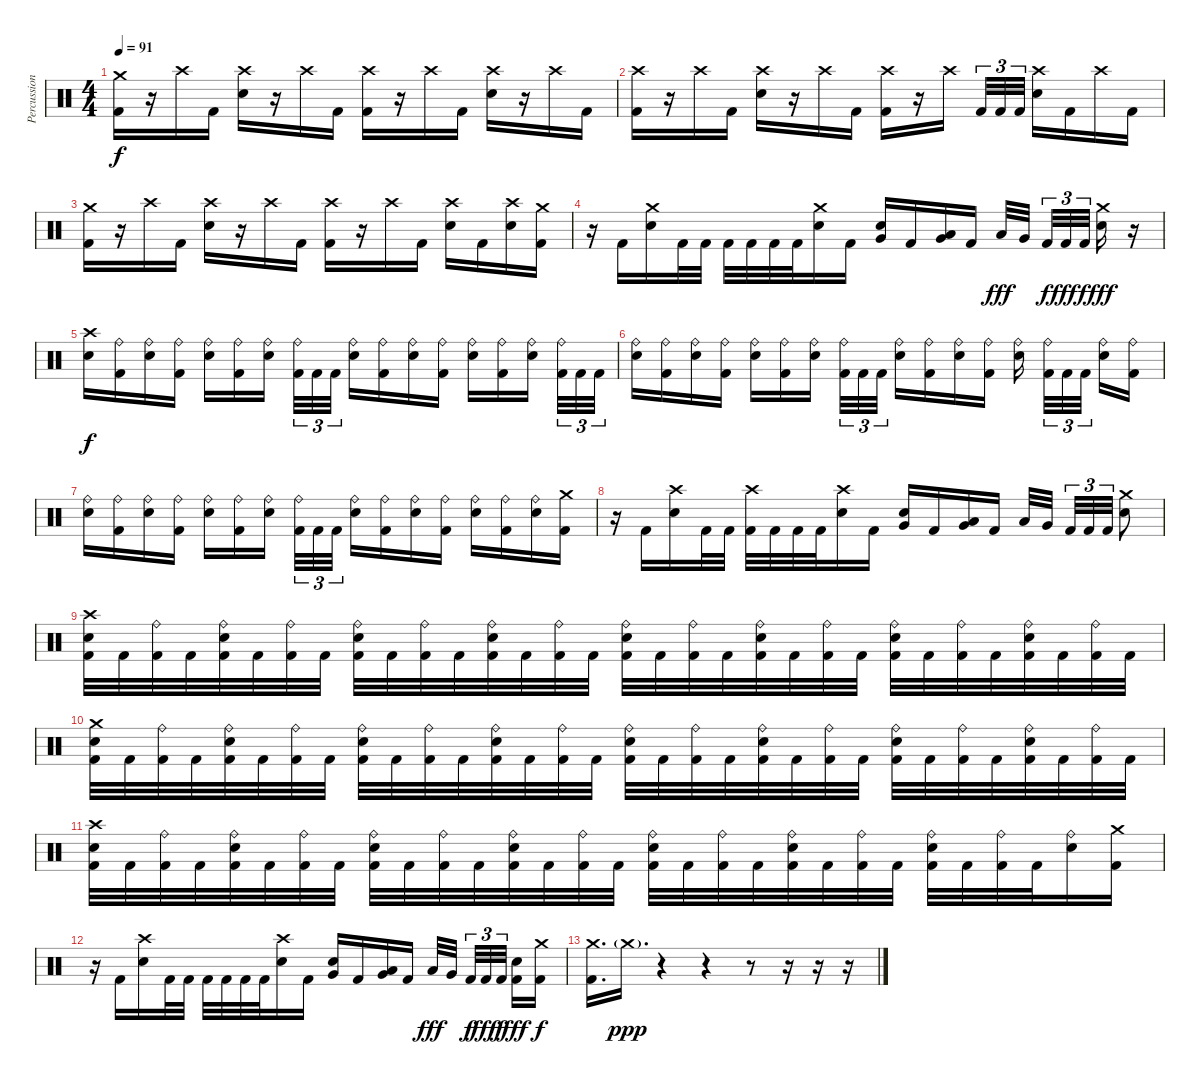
\track ("Percussion" "Percussion") {instrument percussion}
\staff {score}
\articulation defaults
\ts (4 4)
\tempo 91
\clef neutral
\ks c
("Crash medium (hit)" "Kick (hit) 2").16{dy f} r.16 "Crash high (hit)".16 "Kick (hit) 2".16 ("Crash high (hit)" "Electric Snare (hit)").16 r.16 "Crash high (hit)".16 "Kick (hit) 2".16 ("Crash high (hit)" "Kick (hit) 2").16 r.16 "Crash high (hit)".16 "Kick (hit) 2".16 ("Crash high (hit)" "Electric Snare (hit)").16 r.16 "Crash high (hit)".16 "Kick (hit) 2".16 |
("Crash high (hit)" "Kick (hit) 2").16 r.16 "Crash high (hit)".16 "Kick (hit) 2".16 ("Crash high (hit)" "Electric Snare (hit)").16 r.16 "Crash high (hit)".16 "Kick (hit) 2".16 ("Crash high (hit)" "Kick (hit) 2").16 r.16 "Crash high (hit)".16{beam splitsecondary} "Kick (hit) 2".32{tu (3 2)} "Kick (hit) 2".32{tu (3 2)} "Kick (hit) 2".32{tu (3 2)} ("Crash high (hit)" "Electric Snare (hit)").16 "Kick (hit) 2".16 "Crash high (hit)".16 "Kick (hit) 2".16 |
("Crash medium (hit)" "Kick (hit) 2").16 r.16 "Crash high (hit)".16 "Kick (hit) 2".16 ("Crash high (hit)" "Electric Snare (hit)").16 r.16 "Crash high (hit)".16 "Kick (hit) 2".16 ("Crash high (hit)" "Kick (hit) 2").16 r.16 "Crash high (hit)".16 "Kick (hit) 2".16 ("Crash high (hit)" "Electric Snare (hit)").16 "Kick (hit) 2".16 ("Crash high (hit)" "Electric Snare (hit)").16 ("Crash medium (hit)" "Kick (hit) 2").16 |
r.16 "Kick (hit) 2".16 ("Crash medium (hit)" "Electric Snare (hit)").16 "Kick (hit) 2".32 "Kick (hit) 2".32 "Kick (hit) 2".32 "Kick (hit) 2".32 "Kick (hit) 2".32 "Kick (hit) 2".32 ("Crash medium (hit)" "Electric Snare (hit)").16 "Kick (hit) 2".16 ("Electric Snare (hit)" "Very Low Tom (hit)").16 "Kick (hit) 2".16 ("Very Low Tom (hit)" "Low Floor Tom (hit)").16 "Kick (hit) 2".16 "Low Tom (hit)".32{dy fff} "Very Low Tom (hit)".32{beam splitsecondary} "Kick (hit) 2".32{tu (3 2) dy f} "Kick (hit) 2".32{tu (3 2) dy fff} "Kick (hit) 2".32{tu (3 2) dy f beam splitsecondary} ("Crash medium (hit)" "Electric Snare (hit)").16{dy fff} r.16 |
("Crash high (hit)" "Electric Snare (hit)").16{dy f} ("Ride (bell)" "Kick (hit) 2").16 ("Ride (bell)" "Electric Snare (hit)").16 ("Ride (bell)" "Kick (hit) 2").16 ("Ride (bell)" "Electric Snare (hit)").16 ("Ride (bell)" "Kick (hit) 2").16 ("Ride (bell)" "Electric Snare (hit)").16{beam splitsecondary} ("Ride (bell)" "Kick (hit) 2").32{tu (3 2)} "Kick (hit) 2".32{tu (3 2)} "Kick (hit) 2".32{tu (3 2)} ("Ride (bell)" "Electric Snare (hit)").16 ("Ride (bell)" "Kick (hit) 2").16 ("Ride (bell)" "Electric Snare (hit)").16 ("Ride (bell)" "Kick (hit) 2").16 ("Ride (bell)" "Electric Snare (hit)").16 ("Ride (bell)" "Kick (hit) 2").16 ("Ride (bell)" "Electric Snare (hit)").16{beam splitsecondary} ("Ride (bell)" "Kick (hit) 2").32{tu (3 2)} "Kick (hit) 2".32{tu (3 2)} "Kick (hit) 2".32{tu (3 2)} |
("Ride (bell)" "Electric Snare (hit)").16 ("Ride (bell)" "Kick (hit) 2").16 ("Ride (bell)" "Electric Snare (hit)").16 ("Ride (bell)" "Kick (hit) 2").16 ("Ride (bell)" "Electric Snare (hit)").16 ("Ride (bell)" "Kick (hit) 2").16 ("Ride (bell)" "Electric Snare (hit)").16{beam splitsecondary} ("Ride (bell)" "Kick (hit) 2").32{tu (3 2)} "Kick (hit) 2".32{tu (3 2)} "Kick (hit) 2".32{tu (3 2)} ("Ride (bell)" "Electric Snare (hit)").16 ("Ride (bell)" "Kick (hit) 2").16 ("Ride (bell)" "Electric Snare (hit)").16 ("Ride (bell)" "Kick (hit) 2").16 ("Ride (bell)" "Electric Snare (hit)").16{beam splitsecondary} ("Ride (bell)" "Kick (hit) 2").32{tu (3 2)} "Kick (hit) 2".32{tu (3 2)} "Kick (hit) 2".32{tu (3 2) beam splitsecondary} ("Ride (bell)" "Electric Snare (hit)").16 ("Ride (bell)" "Kick (hit) 2").16 |
("Ride (bell)" "Electric Snare (hit)").16 ("Ride (bell)" "Kick (hit) 2").16 ("Ride (bell)" "Electric Snare (hit)").16 ("Ride (bell)" "Kick (hit) 2").16 ("Ride (bell)" "Electric Snare (hit)").16 ("Ride (bell)" "Kick (hit) 2").16 ("Ride (bell)" "Electric Snare (hit)").16{beam splitsecondary} ("Ride (bell)" "Kick (hit) 2").32{tu (3 2)} "Kick (hit) 2".32{tu (3 2)} "Kick (hit) 2".32{tu (3 2)} ("Ride (bell)" "Electric Snare (hit)").16 ("Ride (bell)" "Kick (hit) 2").16 ("Ride (bell)" "Electric Snare (hit)").16 ("Ride (bell)" "Kick (hit) 2").16 ("Ride (bell)" "Electric Snare (hit)").16 ("Ride (bell)" "Kick (hit) 2").16 ("Ride (bell)" "Electric Snare (hit)").16 ("Crash medium (hit)" "Kick (hit) 2").16 |
r.16 "Kick (hit) 2".16 ("Crash high (hit)" "Electric Snare (hit)").16 "Kick (hit) 2".32 "Kick (hit) 2".32 ("Crash high (hit)" "Kick (hit) 2").32 "Kick (hit) 2".32 "Kick (hit) 2".32 "Kick (hit) 2".32 ("Crash high (hit)" "Electric Snare (hit)").16 "Kick (hit) 2".16 ("Electric Snare (hit)" "Very Low Tom (hit)").16 "Kick (hit) 2".16 ("Very Low Tom (hit)" "Low Floor Tom (hit)").16 "Kick (hit) 2".16 "Low Tom (hit)".32 "Very Low Tom (hit)".32{beam splitsecondary} "Kick (hit) 2".32{tu (3 2)} "Kick (hit) 2".32{tu (3 2)} "Kick (hit) 2".32{tu (3 2)} ("Crash medium (hit)" "Electric Snare (hit)").8 |
("Crash high (hit)" "Electric Snare (hit)" "Kick (hit) 2").32 "Kick (hit) 2".32 ("Ride (bell)" "Kick (hit) 2").32 "Kick (hit) 2".32 ("Ride (bell)" "Electric Snare (hit)" "Kick (hit) 2").32 "Kick (hit) 2".32 ("Ride (bell)" "Kick (hit) 2").32 "Kick (hit) 2".32 ("Ride (bell)" "Electric Snare (hit)" "Kick (hit) 2").32 "Kick (hit) 2".32 ("Ride (bell)" "Kick (hit) 2").32 "Kick (hit) 2".32 ("Ride (bell)" "Electric Snare (hit)" "Kick (hit) 2").32 "Kick (hit) 2".32 ("Ride (bell)" "Kick (hit) 2").32 "Kick (hit) 2".32 ("Ride (bell)" "Electric Snare (hit)" "Kick (hit) 2").32 "Kick (hit) 2".32 ("Ride (bell)" "Kick (hit) 2").32 "Kick (hit) 2".32 ("Ride (bell)" "Electric Snare (hit)" "Kick (hit) 2").32 "Kick (hit) 2".32 ("Ride (bell)" "Kick (hit) 2").32 "Kick (hit) 2".32 ("Ride (bell)" "Electric Snare (hit)" "Kick (hit) 2").32 "Kick (hit) 2".32 ("Ride (bell)" "Kick (hit) 2").32 "Kick (hit) 2".32 ("Ride (bell)" "Electric Snare (hit)" "Kick (hit) 2").32 "Kick (hit) 2".32 ("Ride (bell)" "Kick (hit) 2").32 "Kick (hit) 2".32 |
("Crash medium (hit)" "Electric Snare (hit)" "Kick (hit) 2").32 "Kick (hit) 2".32 ("Ride (bell)" "Kick (hit) 2").32 "Kick (hit) 2".32 ("Ride (bell)" "Electric Snare (hit)" "Kick (hit) 2").32 "Kick (hit) 2".32 ("Ride (bell)" "Kick (hit) 2").32 "Kick (hit) 2".32 ("Ride (bell)" "Electric Snare (hit)" "Kick (hit) 2").32 "Kick (hit) 2".32 ("Ride (bell)" "Kick (hit) 2").32 "Kick (hit) 2".32 ("Ride (bell)" "Electric Snare (hit)" "Kick (hit) 2").32 "Kick (hit) 2".32 ("Ride (bell)" "Kick (hit) 2").32 "Kick (hit) 2".32 ("Ride (bell)" "Electric Snare (hit)" "Kick (hit) 2").32 "Kick (hit) 2".32 ("Ride (bell)" "Kick (hit) 2").32 "Kick (hit) 2".32 ("Ride (bell)" "Electric Snare (hit)" "Kick (hit) 2").32 "Kick (hit) 2".32 ("Ride (bell)" "Kick (hit) 2").32 "Kick (hit) 2".32 ("Ride (bell)" "Electric Snare (hit)" "Kick (hit) 2").32 "Kick (hit) 2".32 ("Ride (bell)" "Kick (hit) 2").32 "Kick (hit) 2".32 ("Ride (bell)" "Electric Snare (hit)" "Kick (hit) 2").32 "Kick (hit) 2".32 ("Ride (bell)" "Kick (hit) 2").32 "Kick (hit) 2".32 |
("Crash high (hit)" "Electric Snare (hit)" "Kick (hit) 2").32 "Kick (hit) 2".32 ("Ride (bell)" "Kick (hit) 2").32 "Kick (hit) 2".32 ("Ride (bell)" "Electric Snare (hit)" "Kick (hit) 2").32 "Kick (hit) 2".32 ("Ride (bell)" "Kick (hit) 2").32 "Kick (hit) 2".32 ("Ride (bell)" "Electric Snare (hit)" "Kick (hit) 2").32 "Kick (hit) 2".32 ("Ride (bell)" "Kick (hit) 2").32 "Kick (hit) 2".32 ("Ride (bell)" "Electric Snare (hit)" "Kick (hit) 2").32 "Kick (hit) 2".32 ("Ride (bell)" "Kick (hit) 2").32 "Kick (hit) 2".32 ("Ride (bell)" "Electric Snare (hit)" "Kick (hit) 2").32 "Kick (hit) 2".32 ("Ride (bell)" "Kick (hit) 2").32 "Kick (hit) 2".32 ("Ride (bell)" "Electric Snare (hit)" "Kick (hit) 2").32 "Kick (hit) 2".32 ("Ride (bell)" "Kick (hit) 2").32 "Kick (hit) 2".32 ("Ride (bell)" "Electric Snare (hit)" "Kick (hit) 2").32 "Kick (hit) 2".32 ("Ride (bell)" "Kick (hit) 2").32 "Kick (hit) 2".32 ("Ride (bell)" "Electric Snare (hit)").16 ("Crash medium (hit)" "Kick (hit) 2").16 |
r.16 "Kick (hit) 2".16 ("Crash high (hit)" "Electric Snare (hit)").16 "Kick (hit) 2".32 "Kick (hit) 2".32 "Kick (hit) 2".32 "Kick (hit) 2".32 "Kick (hit) 2".32 "Kick (hit) 2".32 ("Crash high (hit)" "Electric Snare (hit)").16 "Kick (hit) 2".16 ("Electric Snare (hit)" "Very Low Tom (hit)").16 "Kick (hit) 2".16 ("Very Low Tom (hit)" "Low Floor Tom (hit)").16 "Kick (hit) 2".16 "Low Tom (hit)".32{dy fff} "Very Low Tom (hit)".32{beam splitsecondary} "Kick (hit) 2".32{tu (3 2) dy f} "Kick (hit) 2".32{tu (3 2) dy fff} "Kick (hit) 2".32{tu (3 2) dy f beam splitsecondary} ("Electric Snare (hit)" "Kick (hit) 2").16{dy fff} ("Crash medium (hit)" "Kick (hit) 2").16{dy f} |
("Crash medium (hit)" "Kick (hit) 2").16{d} "Crash medium (hit)"{g}.16{d dy ppp} r.4 r.4 r.8 r.16 r.16 r.16
